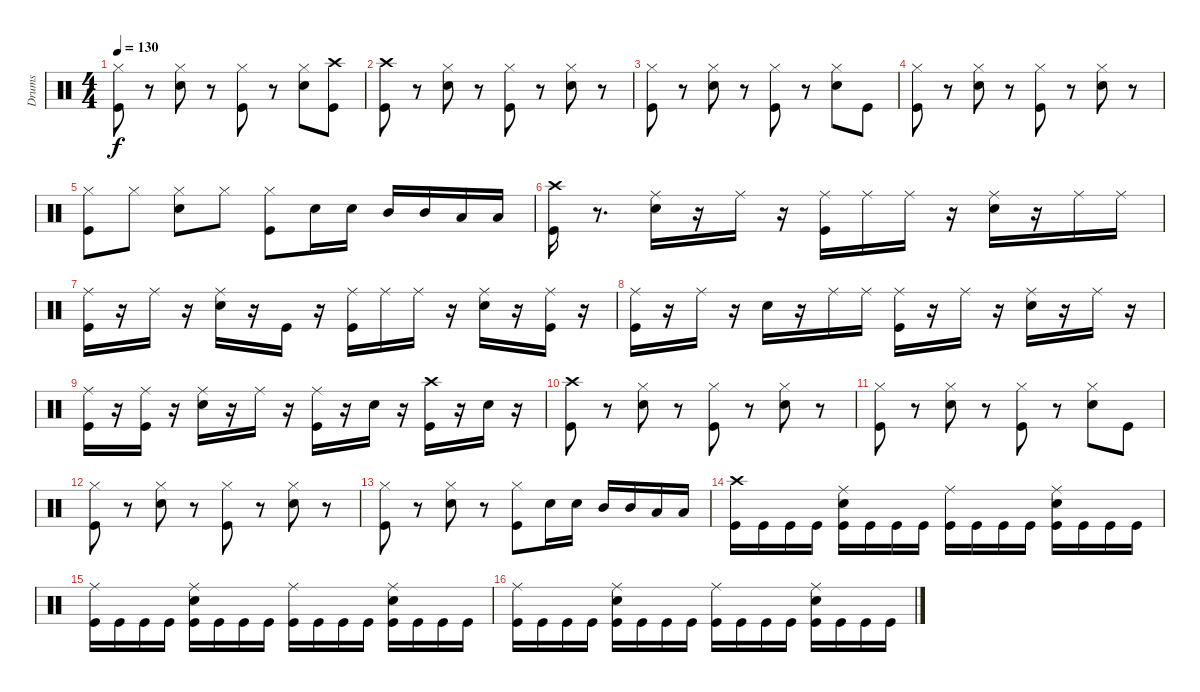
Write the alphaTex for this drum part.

\track ("Drums" "Drums") {instrument percussion}
\staff {score}
\articulation defaults
\ts (4 4)
\tempo 130
\clef neutral
\ks c
("Hi-Hat (closed)" "Kick (hit)").8{dy f} r.8 ("Snare (hit) 2" "Hi-Hat (closed)").8 r.8 ("Kick (hit)" "Hi-Hat (closed)").8 r.8 ("Hi-Hat (closed)" "Snare (hit) 2").8 ("Crash high (hit)" "Kick (hit)").8 |
("Crash high (hit)" "Kick (hit)").8 r.8 ("Snare (hit) 2" "Hi-Hat (closed)").8 r.8 ("Hi-Hat (closed)" "Kick (hit)").8 r.8 ("Snare (hit) 2" "Hi-Hat (closed)").8 r.8 |
("Hi-Hat (closed)" "Kick (hit)").8 r.8 ("Snare (hit) 2" "Hi-Hat (closed)").8 r.8 ("Hi-Hat (closed)" "Kick (hit)").8 r.8 ("Snare (hit) 2" "Hi-Hat (closed)").8 "Kick (hit)".8 |
("Hi-Hat (closed)" "Kick (hit)").8 r.8 ("Snare (hit) 2" "Hi-Hat (closed)").8 r.8 ("Kick (hit)" "Hi-Hat (closed)").8 r.8 ("Snare (hit) 2" "Hi-Hat (closed)").8 r.8 |
("Hi-Hat (closed)" "Kick (hit)").8 "Hi-Hat (closed)".8 ("Snare (hit) 2" "Hi-Hat (closed)").8 "Hi-Hat (closed)".8 ("Hi-Hat (closed)" "Kick (hit)").8 "Snare (hit) 2".16 "Snare (hit) 2".16 "Mid Tom (hit)".16 "Mid Tom (hit)".16 "Low Tom (hit)".16 "Low Tom (hit)".16 |
("Crash high (hit)" "Kick (hit)").16 r.8{d} ("Snare (hit) 2" "Ride (middle)").16 r.16 "Ride (middle)".16 r.16 ("Kick (hit)" "Ride (middle)").16 "Ride (middle)".16 "Ride (middle)".16 r.16 ("Snare (hit) 2" "Ride (middle)").16 r.16 "Ride (middle)".16 "Ride (middle)".16 |
("Kick (hit)" "Ride (middle)").16 r.16 "Ride (middle)".16 r.16 ("Snare (hit) 2" "Ride (middle)").16 r.16 "Kick (hit)".16 r.16 ("Kick (hit)" "Ride (middle)").16 "Ride (middle)".16 "Ride (middle)".16 r.16 ("Snare (hit) 2" "Ride (middle)").16 r.16 ("Kick (hit)" "Ride (middle)").16 r.16 |
("Kick (hit)" "Ride (middle)").16 r.16 "Ride (middle)".16 r.16 "Snare (hit) 2".16 r.16 "Ride (middle)".16 "Ride (middle)".16 ("Kick (hit)" "Ride (middle)").16 r.16 "Ride (middle)".16 r.16 ("Snare (hit) 2" "Ride (middle)").16 r.16 "Ride (middle)".16 r.16 |
("Kick (hit)" "Ride (middle)").16 r.16 ("Kick (hit)" "Ride (middle)").16 r.16 ("Snare (hit) 2" "Ride (middle)").16 r.16 "Ride (middle)".16 r.16 ("Kick (hit)" "Ride (middle)").16 r.16 "Snare (hit) 2".16 r.16 ("Crash high (hit)" "Kick (hit)").16 r.16 "Snare (hit) 2".16 r.16 |
("Crash high (hit)" "Kick (hit)").8 r.8 ("Snare (hit) 2" "Hi-Hat (closed)").8 r.8 ("Kick (hit)" "Hi-Hat (closed)").8 r.8 ("Snare (hit) 2" "Hi-Hat (closed)").8 r.8 |
("Hi-Hat (closed)" "Kick (hit)").8 r.8 ("Snare (hit) 2" "Hi-Hat (closed)").8 r.8 ("Kick (hit)" "Hi-Hat (closed)").8 r.8 ("Snare (hit) 2" "Hi-Hat (closed)").8 "Kick (hit)".8 |
("Hi-Hat (closed)" "Kick (hit)").8 r.8 ("Snare (hit) 2" "Hi-Hat (closed)").8 r.8 ("Kick (hit)" "Hi-Hat (closed)").8 r.8 ("Snare (hit) 2" "Hi-Hat (closed)").8 r.8 |
("Hi-Hat (closed)" "Kick (hit)").8 r.8 ("Snare (hit) 2" "Hi-Hat (closed)").8 r.8 ("Kick (hit)" "Hi-Hat (closed)").8 "Snare (hit) 2".16 "Snare (hit) 2".16 "Mid Tom (hit)".16 "Mid Tom (hit)".16 "Low Tom (hit)".16 "Low Tom (hit)".16 |
("Kick (hit)" "Crash high (hit)").16 "Kick (hit)".16 "Kick (hit)".16 "Kick (hit)".16 ("Kick (hit)" "Snare (hit) 2" "Ride (middle)").16 "Kick (hit)".16 "Kick (hit)".16 "Kick (hit)".16 ("Kick (hit)" "Ride (middle)").16 "Kick (hit)".16 "Kick (hit)".16 "Kick (hit)".16 ("Kick (hit)" "Snare (hit) 2" "Ride (middle)").16 "Kick (hit)".16 "Kick (hit)".16 "Kick (hit)".16 |
("Kick (hit)" "Ride (middle)").16 "Kick (hit)".16 "Kick (hit)".16 "Kick (hit)".16 ("Kick (hit)" "Snare (hit) 2" "Ride (middle)").16 "Kick (hit)".16 "Kick (hit)".16 "Kick (hit)".16 ("Kick (hit)" "Ride (middle)").16 "Kick (hit)".16 "Kick (hit)".16 "Kick (hit)".16 ("Kick (hit)" "Snare (hit) 2" "Ride (middle)").16 "Kick (hit)".16 "Kick (hit)".16 "Kick (hit)".16 |
("Kick (hit)" "Ride (middle)").16 "Kick (hit)".16 "Kick (hit)".16 "Kick (hit)".16 ("Kick (hit)" "Snare (hit) 2" "Ride (middle)").16 "Kick (hit)".16 "Kick (hit)".16 "Kick (hit)".16 ("Kick (hit)" "Ride (middle)").16 "Kick (hit)".16 "Kick (hit)".16 "Kick (hit)".16 ("Kick (hit)" "Snare (hit) 2" "Ride (middle)").16 "Kick (hit)".16 "Kick (hit)".16 "Kick (hit)".16
